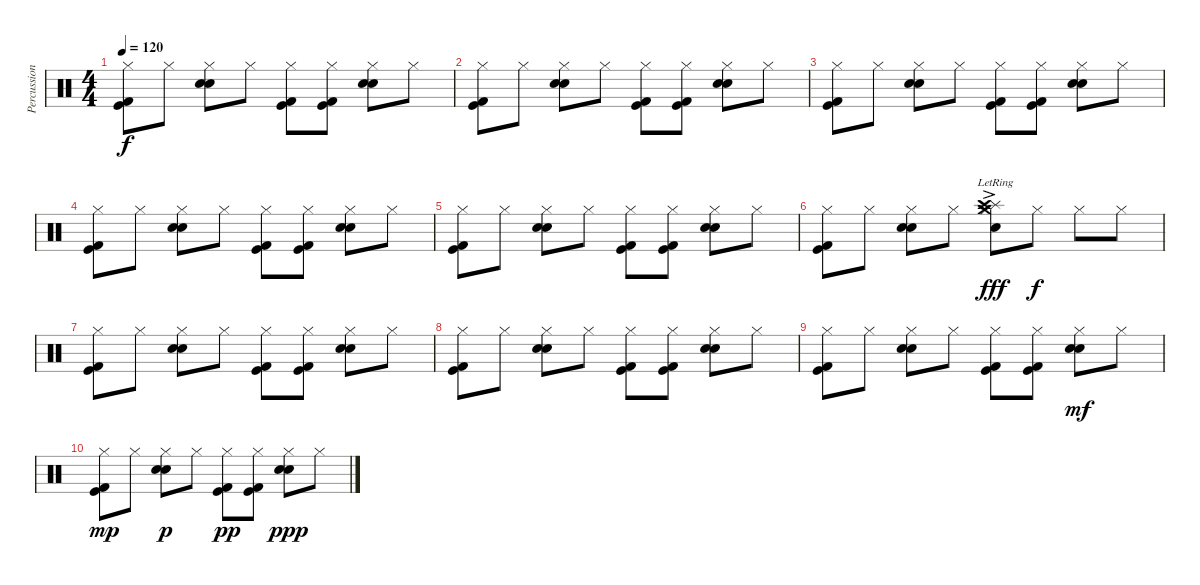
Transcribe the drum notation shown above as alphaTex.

\track ("Percussions" "Percussion") {instrument percussion}
\staff {score}
\articulation defaults
\ts (4 4)
\tempo 120
\clef neutral
\ks c
("Hi-Hat (closed)" "Kick (hit)" "Kick (hit) 2").8{dy f} "Hi-Hat (closed)".8 ("Hi-Hat (closed)" "Snare (hit) 2" "Electric Snare (hit)").8 "Hi-Hat (closed)".8 ("Hi-Hat (closed)" "Kick (hit)" "Kick (hit) 2").8 ("Hi-Hat (closed)" "Kick (hit)" "Kick (hit) 2").8 ("Hi-Hat (closed)" "Snare (hit) 2" "Electric Snare (hit)").8 "Hi-Hat (closed)".8 |
("Hi-Hat (closed)" "Kick (hit)" "Kick (hit) 2").8 "Hi-Hat (closed)".8 ("Hi-Hat (closed)" "Snare (hit) 2" "Electric Snare (hit)").8 "Hi-Hat (closed)".8 ("Hi-Hat (closed)" "Kick (hit)" "Kick (hit) 2").8 ("Hi-Hat (closed)" "Kick (hit)" "Kick (hit) 2").8 ("Hi-Hat (closed)" "Snare (hit) 2" "Electric Snare (hit)").8 "Hi-Hat (closed)".8 |
("Hi-Hat (closed)" "Kick (hit)" "Kick (hit) 2").8 "Hi-Hat (closed)".8 ("Hi-Hat (closed)" "Snare (hit) 2" "Electric Snare (hit)").8 "Hi-Hat (closed)".8 ("Hi-Hat (closed)" "Kick (hit)" "Kick (hit) 2").8 ("Hi-Hat (closed)" "Kick (hit)" "Kick (hit) 2").8 ("Hi-Hat (closed)" "Snare (hit) 2" "Electric Snare (hit)").8 "Hi-Hat (closed)".8 |
("Hi-Hat (closed)" "Kick (hit)" "Kick (hit) 2").8 "Hi-Hat (closed)".8 ("Hi-Hat (closed)" "Snare (hit) 2" "Electric Snare (hit)").8 "Hi-Hat (closed)".8 ("Hi-Hat (closed)" "Kick (hit)" "Kick (hit) 2").8 ("Hi-Hat (closed)" "Kick (hit)" "Kick (hit) 2").8 ("Hi-Hat (closed)" "Snare (hit) 2" "Electric Snare (hit)").8 "Hi-Hat (closed)".8 |
("Hi-Hat (closed)" "Kick (hit)" "Kick (hit) 2").8 "Hi-Hat (closed)".8 ("Hi-Hat (closed)" "Snare (hit) 2" "Electric Snare (hit)").8 "Hi-Hat (closed)".8 ("Hi-Hat (closed)" "Kick (hit)" "Kick (hit) 2").8 ("Hi-Hat (closed)" "Kick (hit)" "Kick (hit) 2").8 ("Hi-Hat (closed)" "Snare (hit) 2" "Electric Snare (hit)").8 "Hi-Hat (closed)".8 |
("Hi-Hat (closed)" "Kick (hit)" "Kick (hit) 2").8 "Hi-Hat (closed)".8 ("Hi-Hat (closed)" "Snare (hit) 2" "Electric Snare (hit)").8 "Hi-Hat (closed)".8 ("Hi-Hat (closed)" "Splash (hit)" "Crash medium (hit)" "Crash high (hit)"{ac lr} "Snare (hit)").8{dy fff} "Hi-Hat (closed)".8{dy f} "Hi-Hat (closed)".8 "Hi-Hat (closed)".8 |
("Hi-Hat (closed)" "Kick (hit)" "Kick (hit) 2").8 "Hi-Hat (closed)".8 ("Hi-Hat (closed)" "Snare (hit) 2" "Electric Snare (hit)").8 "Hi-Hat (closed)".8 ("Hi-Hat (closed)" "Kick (hit)" "Kick (hit) 2").8 ("Hi-Hat (closed)" "Kick (hit)" "Kick (hit) 2").8 ("Hi-Hat (closed)" "Snare (hit) 2" "Electric Snare (hit)").8 "Hi-Hat (closed)".8 |
("Hi-Hat (closed)" "Kick (hit)" "Kick (hit) 2").8 "Hi-Hat (closed)".8 ("Hi-Hat (closed)" "Snare (hit) 2" "Electric Snare (hit)").8 "Hi-Hat (closed)".8 ("Hi-Hat (closed)" "Kick (hit)" "Kick (hit) 2").8 ("Hi-Hat (closed)" "Kick (hit)" "Kick (hit) 2").8 ("Hi-Hat (closed)" "Snare (hit) 2" "Electric Snare (hit)").8 "Hi-Hat (closed)".8 |
("Hi-Hat (closed)" "Kick (hit)" "Kick (hit) 2").8 "Hi-Hat (closed)".8 ("Hi-Hat (closed)" "Snare (hit) 2" "Electric Snare (hit)").8 "Hi-Hat (closed)".8 ("Hi-Hat (closed)" "Kick (hit)" "Kick (hit) 2").8 ("Hi-Hat (closed)" "Kick (hit)" "Kick (hit) 2").8 ("Hi-Hat (closed)" "Snare (hit) 2" "Electric Snare (hit)").8{dy mf} "Hi-Hat (closed)".8 |
("Hi-Hat (closed)" "Kick (hit)" "Kick (hit) 2").8{dy mp} "Hi-Hat (closed)".8 ("Hi-Hat (closed)" "Snare (hit) 2" "Electric Snare (hit)").8{dy p} "Hi-Hat (closed)".8 ("Hi-Hat (closed)" "Kick (hit)" "Kick (hit) 2").8{dy pp} ("Hi-Hat (closed)" "Kick (hit)" "Kick (hit) 2").8 ("Hi-Hat (closed)" "Snare (hit) 2" "Electric Snare (hit)").8{dy ppp} "Hi-Hat (closed)".8
